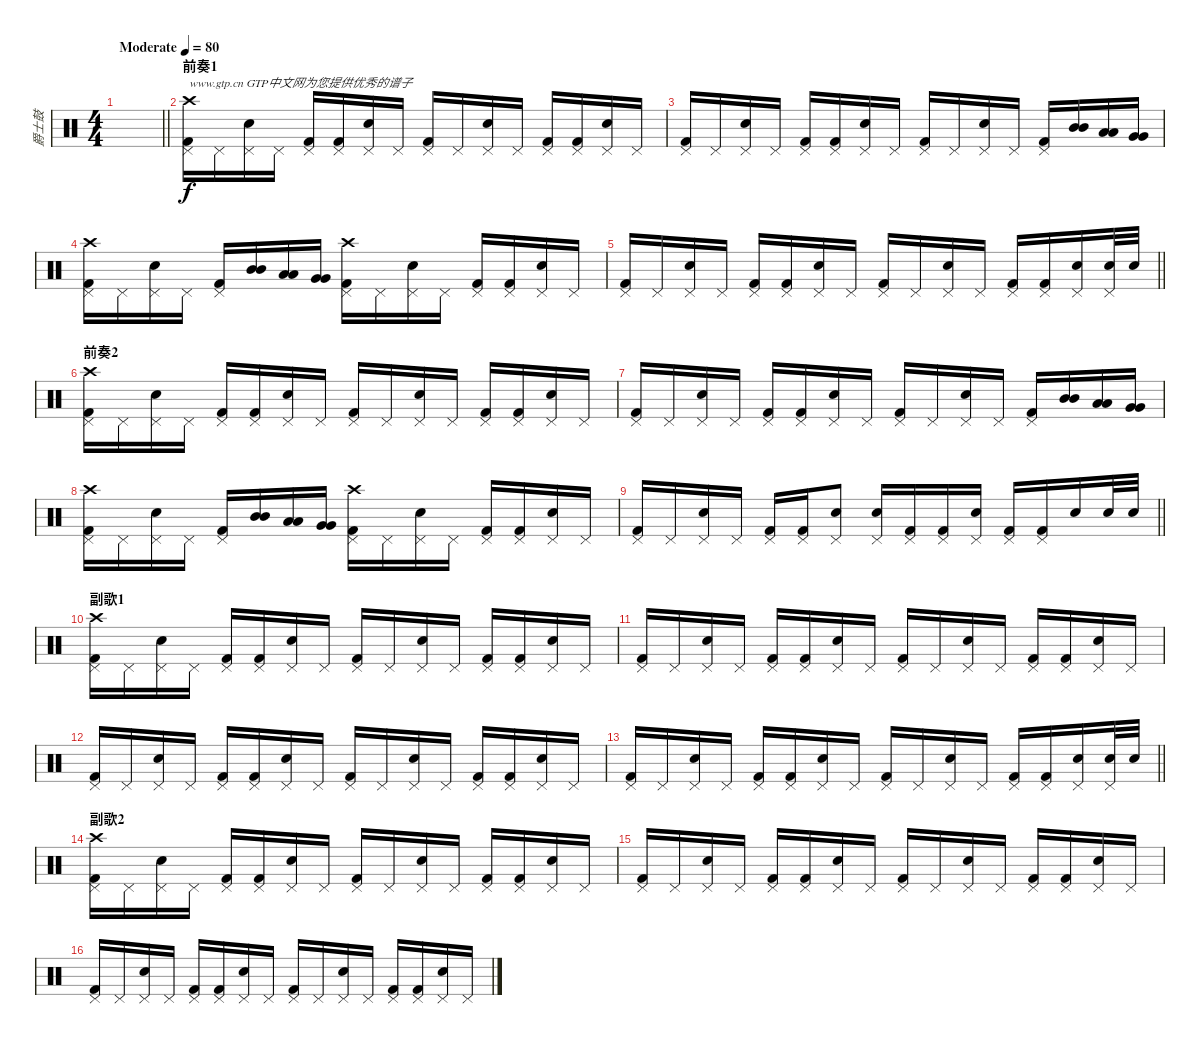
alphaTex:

\track ("爵士鼓" "爵士鼓") {instrument percussion}
\staff {score}
\articulation defaults
\ts (4 4)
\tempo (80 "Moderate")
\clef neutral
\barLineRight lightlight
\ks c
|
\section ("" "前奏1")
("Pedal Hi-Hat (hit)" "Kick (hit) 2" "Crash high (hit)").16{txt "www.gtp.cn GTP中文网为您提供优秀的谱子"} "Pedal Hi-Hat (hit)".16 ("Pedal Hi-Hat (hit)" "Snare (hit) 2").16 "Pedal Hi-Hat (hit)".16 ("Pedal Hi-Hat (hit)" "Kick (hit) 2").16 ("Pedal Hi-Hat (hit)" "Kick (hit) 2").16 ("Pedal Hi-Hat (hit)" "Snare (hit) 2").16 "Pedal Hi-Hat (hit)".16 ("Pedal Hi-Hat (hit)" "Kick (hit) 2").16 "Pedal Hi-Hat (hit)".16 ("Pedal Hi-Hat (hit)" "Snare (hit) 2").16 "Pedal Hi-Hat (hit)".16 ("Pedal Hi-Hat (hit)" "Kick (hit) 2").16 ("Pedal Hi-Hat (hit)" "Kick (hit) 2").16 ("Pedal Hi-Hat (hit)" "Snare (hit) 2").16 "Pedal Hi-Hat (hit)".16 |
("Pedal Hi-Hat (hit)" "Kick (hit) 2").16 "Pedal Hi-Hat (hit)".16 ("Pedal Hi-Hat (hit)" "Snare (hit) 2").16 "Pedal Hi-Hat (hit)".16 ("Pedal Hi-Hat (hit)" "Kick (hit) 2").16 ("Pedal Hi-Hat (hit)" "Kick (hit) 2").16 ("Pedal Hi-Hat (hit)" "Snare (hit) 2").16 "Pedal Hi-Hat (hit)".16 ("Pedal Hi-Hat (hit)" "Kick (hit) 2").16 "Pedal Hi-Hat (hit)".16 ("Pedal Hi-Hat (hit)" "Snare (hit) 2").16 "Pedal Hi-Hat (hit)".16 ("Pedal Hi-Hat (hit)" "Kick (hit) 2").16 ("Mid Tom (hit)" "Mid Tom (hit)").16 ("Low Tom (hit)" "Low Tom (hit)").16 ("Very Low Tom (hit)" "Very Low Tom (hit)").16 |
("Pedal Hi-Hat (hit)" "Kick (hit) 2" "Crash high (hit)").16 "Pedal Hi-Hat (hit)".16 ("Pedal Hi-Hat (hit)" "Snare (hit) 2").16 "Pedal Hi-Hat (hit)".16 ("Pedal Hi-Hat (hit)" "Kick (hit) 2").16 ("Mid Tom (hit)" "Mid Tom (hit)").16 ("Low Tom (hit)" "Low Tom (hit)").16 ("Very Low Tom (hit)" "Very Low Tom (hit)").16 ("Pedal Hi-Hat (hit)" "Kick (hit) 2" "Crash high (hit)").16 "Pedal Hi-Hat (hit)".16 ("Pedal Hi-Hat (hit)" "Snare (hit) 2").16 "Pedal Hi-Hat (hit)".16 ("Pedal Hi-Hat (hit)" "Kick (hit) 2").16 ("Pedal Hi-Hat (hit)" "Kick (hit) 2").16 ("Pedal Hi-Hat (hit)" "Snare (hit) 2").16 "Pedal Hi-Hat (hit)".16 |
\barLineRight lightlight
("Pedal Hi-Hat (hit)" "Kick (hit) 2").16 "Pedal Hi-Hat (hit)".16 ("Pedal Hi-Hat (hit)" "Snare (hit) 2").16 "Pedal Hi-Hat (hit)".16 ("Pedal Hi-Hat (hit)" "Kick (hit) 2").16 ("Pedal Hi-Hat (hit)" "Kick (hit) 2").16 ("Pedal Hi-Hat (hit)" "Snare (hit) 2").16 "Pedal Hi-Hat (hit)".16 ("Pedal Hi-Hat (hit)" "Kick (hit) 2").16 "Pedal Hi-Hat (hit)".16 ("Pedal Hi-Hat (hit)" "Snare (hit) 2").16 "Pedal Hi-Hat (hit)".16 ("Pedal Hi-Hat (hit)" "Kick (hit) 2").16 ("Pedal Hi-Hat (hit)" "Kick (hit) 2").16 ("Pedal Hi-Hat (hit)" "Snare (hit) 2").16 ("Pedal Hi-Hat (hit)" "Snare (hit) 2").32 "Snare (hit) 2".32 |
\section ("" "前奏2")
("Pedal Hi-Hat (hit)" "Kick (hit) 2" "Crash high (hit)").16 "Pedal Hi-Hat (hit)".16 ("Pedal Hi-Hat (hit)" "Snare (hit) 2").16 "Pedal Hi-Hat (hit)".16 ("Pedal Hi-Hat (hit)" "Kick (hit) 2").16 ("Pedal Hi-Hat (hit)" "Kick (hit) 2").16 ("Pedal Hi-Hat (hit)" "Snare (hit) 2").16 "Pedal Hi-Hat (hit)".16 ("Pedal Hi-Hat (hit)" "Kick (hit) 2").16 "Pedal Hi-Hat (hit)".16 ("Pedal Hi-Hat (hit)" "Snare (hit) 2").16 "Pedal Hi-Hat (hit)".16 ("Pedal Hi-Hat (hit)" "Kick (hit) 2").16 ("Pedal Hi-Hat (hit)" "Kick (hit) 2").16 ("Pedal Hi-Hat (hit)" "Snare (hit) 2").16 "Pedal Hi-Hat (hit)".16 |
("Pedal Hi-Hat (hit)" "Kick (hit) 2").16 "Pedal Hi-Hat (hit)".16 ("Pedal Hi-Hat (hit)" "Snare (hit) 2").16 "Pedal Hi-Hat (hit)".16 ("Pedal Hi-Hat (hit)" "Kick (hit) 2").16 ("Pedal Hi-Hat (hit)" "Kick (hit) 2").16 ("Pedal Hi-Hat (hit)" "Snare (hit) 2").16 "Pedal Hi-Hat (hit)".16 ("Pedal Hi-Hat (hit)" "Kick (hit) 2").16 "Pedal Hi-Hat (hit)".16 ("Pedal Hi-Hat (hit)" "Snare (hit) 2").16 "Pedal Hi-Hat (hit)".16 ("Pedal Hi-Hat (hit)" "Kick (hit) 2").16 ("Mid Tom (hit)" "Mid Tom (hit)").16 ("Low Tom (hit)" "Low Tom (hit)").16 ("Very Low Tom (hit)" "Very Low Tom (hit)").16 |
("Pedal Hi-Hat (hit)" "Kick (hit) 2" "Crash high (hit)").16 "Pedal Hi-Hat (hit)".16 ("Pedal Hi-Hat (hit)" "Snare (hit) 2").16 "Pedal Hi-Hat (hit)".16 ("Pedal Hi-Hat (hit)" "Kick (hit) 2").16 ("Mid Tom (hit)" "Mid Tom (hit)").16 ("Low Tom (hit)" "Low Tom (hit)").16 ("Very Low Tom (hit)" "Very Low Tom (hit)").16 ("Pedal Hi-Hat (hit)" "Kick (hit) 2" "Crash high (hit)").16 "Pedal Hi-Hat (hit)".16 ("Pedal Hi-Hat (hit)" "Snare (hit) 2").16 "Pedal Hi-Hat (hit)".16 ("Pedal Hi-Hat (hit)" "Kick (hit) 2").16 ("Pedal Hi-Hat (hit)" "Kick (hit) 2").16 ("Pedal Hi-Hat (hit)" "Snare (hit) 2").16 "Pedal Hi-Hat (hit)".16 |
\barLineRight lightlight
("Pedal Hi-Hat (hit)" "Kick (hit) 2").16 "Pedal Hi-Hat (hit)".16 ("Pedal Hi-Hat (hit)" "Snare (hit) 2").16 "Pedal Hi-Hat (hit)".16 ("Pedal Hi-Hat (hit)" "Kick (hit) 2").16 ("Pedal Hi-Hat (hit)" "Kick (hit) 2").16 ("Pedal Hi-Hat (hit)" "Snare (hit) 2").8 ("Pedal Hi-Hat (hit)" "Snare (hit) 2").16 ("Pedal Hi-Hat (hit)" "Kick (hit) 2").16 ("Pedal Hi-Hat (hit)" "Kick (hit) 2").16 ("Pedal Hi-Hat (hit)" "Snare (hit) 2").16 ("Pedal Hi-Hat (hit)" "Kick (hit) 2").16 ("Pedal Hi-Hat (hit)" "Kick (hit) 2").16 "Snare (hit) 2".16 "Snare (hit) 2".32 "Snare (hit) 2".32 |
\section ("" "副歌1")
("Pedal Hi-Hat (hit)" "Kick (hit) 2" "Crash high (hit)").16 "Pedal Hi-Hat (hit)".16 ("Pedal Hi-Hat (hit)" "Snare (hit) 2").16 "Pedal Hi-Hat (hit)".16 ("Pedal Hi-Hat (hit)" "Kick (hit) 2").16 ("Pedal Hi-Hat (hit)" "Kick (hit) 2").16 ("Pedal Hi-Hat (hit)" "Snare (hit) 2").16 "Pedal Hi-Hat (hit)".16 ("Pedal Hi-Hat (hit)" "Kick (hit) 2").16 "Pedal Hi-Hat (hit)".16 ("Pedal Hi-Hat (hit)" "Snare (hit) 2").16 "Pedal Hi-Hat (hit)".16 ("Pedal Hi-Hat (hit)" "Kick (hit) 2").16 ("Pedal Hi-Hat (hit)" "Kick (hit) 2").16 ("Pedal Hi-Hat (hit)" "Snare (hit) 2").16 "Pedal Hi-Hat (hit)".16 |
("Pedal Hi-Hat (hit)" "Kick (hit) 2").16 "Pedal Hi-Hat (hit)".16 ("Pedal Hi-Hat (hit)" "Snare (hit) 2").16 "Pedal Hi-Hat (hit)".16 ("Pedal Hi-Hat (hit)" "Kick (hit) 2").16 ("Pedal Hi-Hat (hit)" "Kick (hit) 2").16 ("Pedal Hi-Hat (hit)" "Snare (hit) 2").16 "Pedal Hi-Hat (hit)".16 ("Pedal Hi-Hat (hit)" "Kick (hit) 2").16 "Pedal Hi-Hat (hit)".16 ("Pedal Hi-Hat (hit)" "Snare (hit) 2").16 "Pedal Hi-Hat (hit)".16 ("Pedal Hi-Hat (hit)" "Kick (hit) 2").16 ("Pedal Hi-Hat (hit)" "Kick (hit) 2").16 ("Pedal Hi-Hat (hit)" "Snare (hit) 2").16 "Pedal Hi-Hat (hit)".16 |
("Pedal Hi-Hat (hit)" "Kick (hit) 2").16 "Pedal Hi-Hat (hit)".16 ("Pedal Hi-Hat (hit)" "Snare (hit) 2").16 "Pedal Hi-Hat (hit)".16 ("Pedal Hi-Hat (hit)" "Kick (hit) 2").16 ("Pedal Hi-Hat (hit)" "Kick (hit) 2").16 ("Pedal Hi-Hat (hit)" "Snare (hit) 2").16 "Pedal Hi-Hat (hit)".16 ("Pedal Hi-Hat (hit)" "Kick (hit) 2").16 "Pedal Hi-Hat (hit)".16 ("Pedal Hi-Hat (hit)" "Snare (hit) 2").16 "Pedal Hi-Hat (hit)".16 ("Pedal Hi-Hat (hit)" "Kick (hit) 2").16 ("Pedal Hi-Hat (hit)" "Kick (hit) 2").16 ("Pedal Hi-Hat (hit)" "Snare (hit) 2").16 "Pedal Hi-Hat (hit)".16 |
\barLineRight lightlight
("Pedal Hi-Hat (hit)" "Kick (hit) 2").16 "Pedal Hi-Hat (hit)".16 ("Pedal Hi-Hat (hit)" "Snare (hit) 2").16 "Pedal Hi-Hat (hit)".16 ("Pedal Hi-Hat (hit)" "Kick (hit) 2").16 ("Pedal Hi-Hat (hit)" "Kick (hit) 2").16 ("Pedal Hi-Hat (hit)" "Snare (hit) 2").16 "Pedal Hi-Hat (hit)".16 ("Pedal Hi-Hat (hit)" "Kick (hit) 2").16 "Pedal Hi-Hat (hit)".16 ("Pedal Hi-Hat (hit)" "Snare (hit) 2").16 "Pedal Hi-Hat (hit)".16 ("Pedal Hi-Hat (hit)" "Kick (hit) 2").16 ("Pedal Hi-Hat (hit)" "Kick (hit) 2").16 ("Pedal Hi-Hat (hit)" "Snare (hit) 2").16 ("Pedal Hi-Hat (hit)" "Snare (hit) 2").32 "Snare (hit) 2".32 |
\section ("" "副歌2")
("Pedal Hi-Hat (hit)" "Kick (hit) 2" "Crash high (hit)").16 "Pedal Hi-Hat (hit)".16 ("Pedal Hi-Hat (hit)" "Snare (hit) 2").16 "Pedal Hi-Hat (hit)".16 ("Pedal Hi-Hat (hit)" "Kick (hit) 2").16 ("Pedal Hi-Hat (hit)" "Kick (hit) 2").16 ("Pedal Hi-Hat (hit)" "Snare (hit) 2").16 "Pedal Hi-Hat (hit)".16 ("Pedal Hi-Hat (hit)" "Kick (hit) 2").16 "Pedal Hi-Hat (hit)".16 ("Pedal Hi-Hat (hit)" "Snare (hit) 2").16 "Pedal Hi-Hat (hit)".16 ("Pedal Hi-Hat (hit)" "Kick (hit) 2").16 ("Pedal Hi-Hat (hit)" "Kick (hit) 2").16 ("Pedal Hi-Hat (hit)" "Snare (hit) 2").16 "Pedal Hi-Hat (hit)".16 |
("Pedal Hi-Hat (hit)" "Kick (hit) 2").16 "Pedal Hi-Hat (hit)".16 ("Pedal Hi-Hat (hit)" "Snare (hit) 2").16 "Pedal Hi-Hat (hit)".16 ("Pedal Hi-Hat (hit)" "Kick (hit) 2").16 ("Pedal Hi-Hat (hit)" "Kick (hit) 2").16 ("Pedal Hi-Hat (hit)" "Snare (hit) 2").16 "Pedal Hi-Hat (hit)".16 ("Pedal Hi-Hat (hit)" "Kick (hit) 2").16 "Pedal Hi-Hat (hit)".16 ("Pedal Hi-Hat (hit)" "Snare (hit) 2").16 "Pedal Hi-Hat (hit)".16 ("Pedal Hi-Hat (hit)" "Kick (hit) 2").16 ("Pedal Hi-Hat (hit)" "Kick (hit) 2").16 ("Pedal Hi-Hat (hit)" "Snare (hit) 2").16 "Pedal Hi-Hat (hit)".16 |
("Pedal Hi-Hat (hit)" "Kick (hit) 2").16 "Pedal Hi-Hat (hit)".16 ("Pedal Hi-Hat (hit)" "Snare (hit) 2").16 "Pedal Hi-Hat (hit)".16 ("Pedal Hi-Hat (hit)" "Kick (hit) 2").16 ("Pedal Hi-Hat (hit)" "Kick (hit) 2").16 ("Pedal Hi-Hat (hit)" "Snare (hit) 2").16 "Pedal Hi-Hat (hit)".16 ("Pedal Hi-Hat (hit)" "Kick (hit) 2").16 "Pedal Hi-Hat (hit)".16 ("Pedal Hi-Hat (hit)" "Snare (hit) 2").16 "Pedal Hi-Hat (hit)".16 ("Pedal Hi-Hat (hit)" "Kick (hit) 2").16 ("Pedal Hi-Hat (hit)" "Kick (hit) 2").16 ("Pedal Hi-Hat (hit)" "Snare (hit) 2").16 "Pedal Hi-Hat (hit)".16
